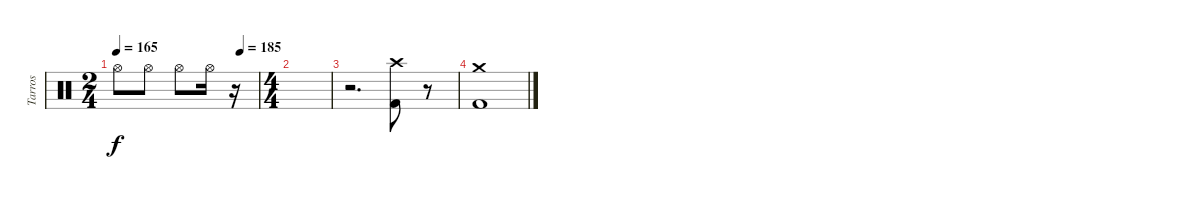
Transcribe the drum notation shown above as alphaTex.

\track ("Tarros" "Tarros") {instrument percussion}
\staff {score}
\articulation defaults
\ts (2 4)
\tempo 165
\tempo (185 0.875)
\clef neutral
\ks c "Hi-Hat (open)".8{dy f} "Hi-Hat (open)".8 "Hi-Hat (open)".8 "Hi-Hat (open)".16
r.16 |
\ts (4 4)
|
r.2{d} ("Crash high (hit)" "Kick (hit) 2").8 r.8{volume 0} |
("Crash medium (hit)" "Kick (hit) 2").1{volume 14}
